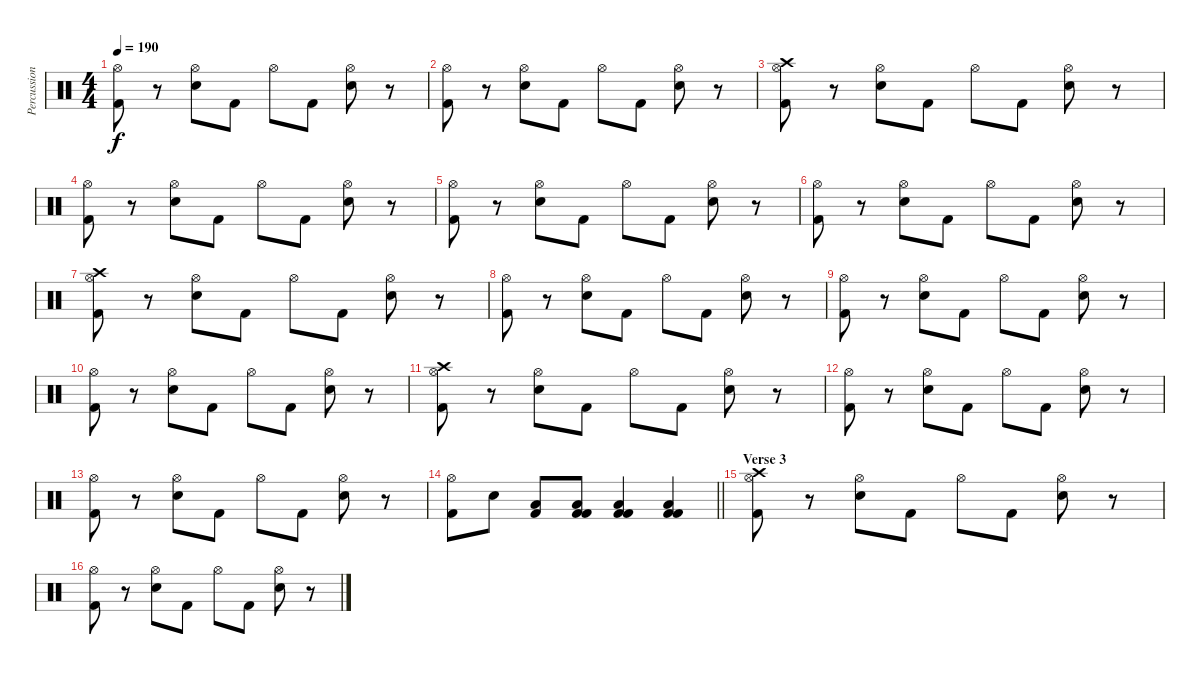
\track ("Percussion" "Percussion") {instrument percussion}
\staff {score}
\articulation defaults
\ts (4 4)
\tempo 190
\clef neutral
\ks c
("Hi-Hat (open)" "Kick (hit) 2").8{dy f} r.8 ("Hi-Hat (open)" "Snare (hit) 2").8 "Kick (hit) 2".8 "Hi-Hat (open)".8 "Kick (hit) 2".8 ("Hi-Hat (open)" "Snare (hit) 2").8 r.8 |
("Hi-Hat (open)" "Kick (hit) 2").8 r.8 ("Hi-Hat (open)" "Snare (hit) 2").8 "Kick (hit) 2".8 "Hi-Hat (open)".8 "Kick (hit) 2".8 ("Hi-Hat (open)" "Snare (hit) 2").8 r.8 |
("Hi-Hat (open)" "Crash high (hit)" "Kick (hit) 2").8 r.8 ("Hi-Hat (open)" "Snare (hit) 2").8 "Kick (hit) 2".8 "Hi-Hat (open)".8 "Kick (hit) 2".8 ("Hi-Hat (open)" "Snare (hit) 2").8 r.8 |
("Hi-Hat (open)" "Kick (hit) 2").8 r.8 ("Hi-Hat (open)" "Snare (hit) 2").8 "Kick (hit) 2".8 "Hi-Hat (open)".8 "Kick (hit) 2".8 ("Hi-Hat (open)" "Snare (hit) 2").8 r.8 |
("Hi-Hat (open)" "Kick (hit) 2").8 r.8 ("Hi-Hat (open)" "Snare (hit) 2").8 "Kick (hit) 2".8 "Hi-Hat (open)".8 "Kick (hit) 2".8 ("Hi-Hat (open)" "Snare (hit) 2").8 r.8 |
("Hi-Hat (open)" "Kick (hit) 2").8 r.8 ("Hi-Hat (open)" "Snare (hit) 2").8 "Kick (hit) 2".8 "Hi-Hat (open)".8 "Kick (hit) 2".8 ("Hi-Hat (open)" "Snare (hit) 2").8 r.8 |
("Hi-Hat (open)" "Crash high (hit)" "Kick (hit) 2").8 r.8 ("Hi-Hat (open)" "Snare (hit) 2").8 "Kick (hit) 2".8 "Hi-Hat (open)".8 "Kick (hit) 2".8 ("Hi-Hat (open)" "Snare (hit) 2").8 r.8 |
("Hi-Hat (open)" "Kick (hit) 2").8 r.8 ("Hi-Hat (open)" "Snare (hit) 2").8 "Kick (hit) 2".8 "Hi-Hat (open)".8 "Kick (hit) 2".8 ("Hi-Hat (open)" "Snare (hit) 2").8 r.8 |
("Hi-Hat (open)" "Kick (hit) 2").8 r.8 ("Hi-Hat (open)" "Snare (hit) 2").8 "Kick (hit) 2".8 "Hi-Hat (open)".8 "Kick (hit) 2".8 ("Hi-Hat (open)" "Snare (hit) 2").8 r.8 |
("Hi-Hat (open)" "Kick (hit) 2").8 r.8 ("Hi-Hat (open)" "Snare (hit) 2").8 "Kick (hit) 2".8 "Hi-Hat (open)".8 "Kick (hit) 2".8 ("Hi-Hat (open)" "Snare (hit) 2").8 r.8 |
("Hi-Hat (open)" "Crash high (hit)" "Kick (hit) 2").8 r.8 ("Hi-Hat (open)" "Snare (hit) 2").8 "Kick (hit) 2".8 "Hi-Hat (open)".8 "Kick (hit) 2".8 ("Hi-Hat (open)" "Snare (hit) 2").8 r.8 |
("Hi-Hat (open)" "Kick (hit) 2").8 r.8 ("Hi-Hat (open)" "Snare (hit) 2").8 "Kick (hit) 2".8 "Hi-Hat (open)".8 "Kick (hit) 2".8 ("Hi-Hat (open)" "Snare (hit) 2").8 r.8 |
("Hi-Hat (open)" "Kick (hit) 2").8 r.8 ("Hi-Hat (open)" "Snare (hit) 2").8 "Kick (hit) 2".8 "Hi-Hat (open)".8 "Kick (hit) 2".8 ("Hi-Hat (open)" "Snare (hit) 2").8 r.8 |
\barLineRight lightlight
("Kick (hit) 2" "Hi-Hat (open)").8 "Snare (hit) 2".8 ("Low Tom (hit)" "Kick (hit) 2").8 ("Low Tom (hit)" "Kick (hit) 2" "Kick (hit) 2").8 ("Kick (hit) 2" "Low Tom (hit)" "Kick (hit) 2").4 ("Kick (hit) 2" "Kick (hit) 2" "Low Tom (hit)").4 |
\section ("" "Verse 3")
("Hi-Hat (open)" "Crash high (hit)" "Kick (hit) 2").8 r.8 ("Hi-Hat (open)" "Snare (hit) 2").8 "Kick (hit) 2".8 "Hi-Hat (open)".8 "Kick (hit) 2".8 ("Hi-Hat (open)" "Snare (hit) 2").8 r.8 |
("Hi-Hat (open)" "Kick (hit) 2").8 r.8 ("Hi-Hat (open)" "Snare (hit) 2").8 "Kick (hit) 2".8 "Hi-Hat (open)".8 "Kick (hit) 2".8 ("Hi-Hat (open)" "Snare (hit) 2").8 r.8
